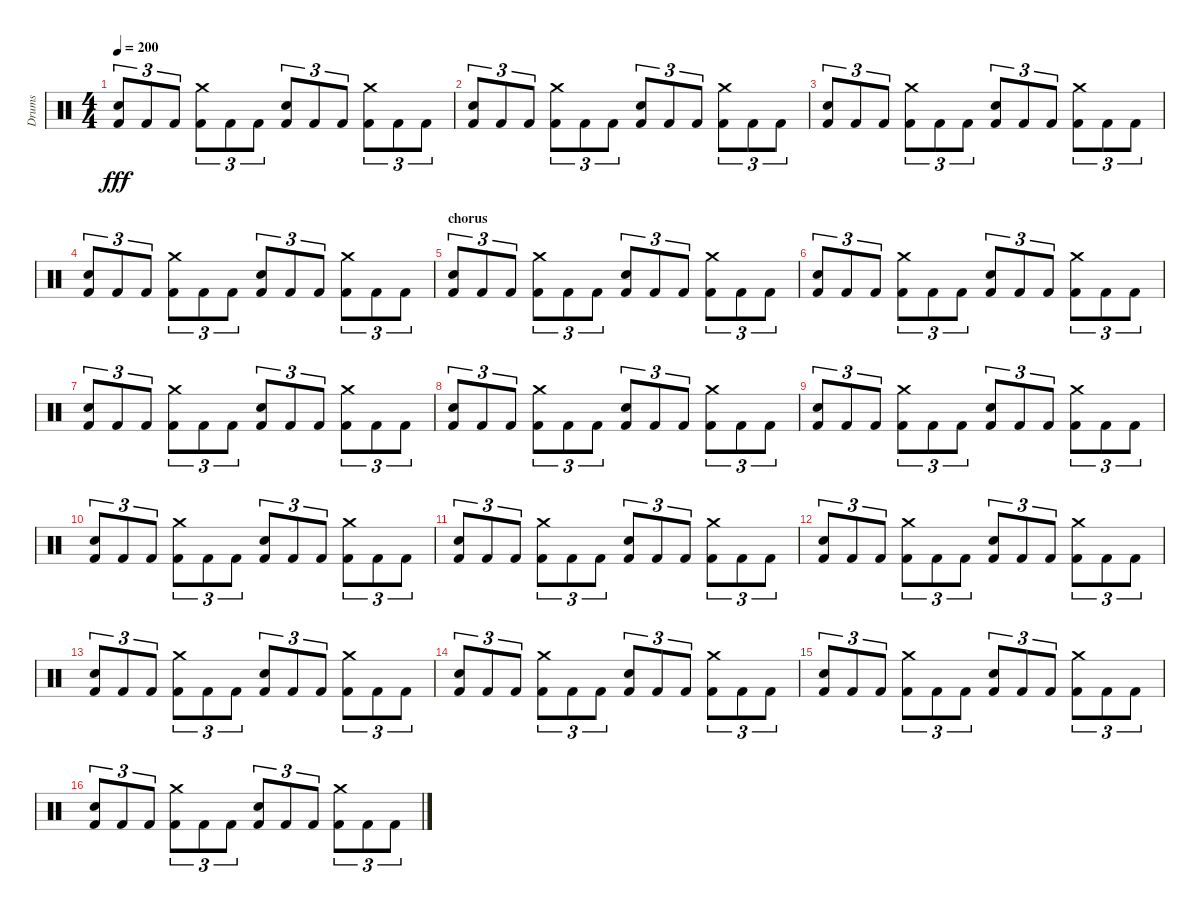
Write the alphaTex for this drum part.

\track ("Drums" "Drums") {instrument percussion}
\staff {score}
\articulation defaults
\ts (4 4)
\tempo 200
\clef neutral
\ks c
("Electric Snare (hit)" "Kick (hit) 2").8{tu (3 2) dy fff} "Kick (hit) 2".8{tu (3 2)} "Kick (hit) 2".8{tu (3 2)} ("Crash medium (hit)" "Kick (hit) 2").8{tu (3 2)} "Kick (hit) 2".8{tu (3 2)} "Kick (hit) 2".8{tu (3 2)} ("Electric Snare (hit)" "Kick (hit) 2").8{tu (3 2)} "Kick (hit) 2".8{tu (3 2)} "Kick (hit) 2".8{tu (3 2)} ("Crash medium (hit)" "Kick (hit) 2").8{tu (3 2)} "Kick (hit) 2".8{tu (3 2)} "Kick (hit) 2".8{tu (3 2)} |
("Electric Snare (hit)" "Kick (hit) 2").8{tu (3 2)} "Kick (hit) 2".8{tu (3 2)} "Kick (hit) 2".8{tu (3 2)} ("Crash medium (hit)" "Kick (hit) 2").8{tu (3 2)} "Kick (hit) 2".8{tu (3 2)} "Kick (hit) 2".8{tu (3 2)} ("Electric Snare (hit)" "Kick (hit) 2").8{tu (3 2)} "Kick (hit) 2".8{tu (3 2)} "Kick (hit) 2".8{tu (3 2)} ("Crash medium (hit)" "Kick (hit) 2").8{tu (3 2)} "Kick (hit) 2".8{tu (3 2)} "Kick (hit) 2".8{tu (3 2)} |
("Electric Snare (hit)" "Kick (hit) 2").8{tu (3 2)} "Kick (hit) 2".8{tu (3 2)} "Kick (hit) 2".8{tu (3 2)} ("Crash medium (hit)" "Kick (hit) 2").8{tu (3 2)} "Kick (hit) 2".8{tu (3 2)} "Kick (hit) 2".8{tu (3 2)} ("Electric Snare (hit)" "Kick (hit) 2").8{tu (3 2)} "Kick (hit) 2".8{tu (3 2)} "Kick (hit) 2".8{tu (3 2)} ("Crash medium (hit)" "Kick (hit) 2").8{tu (3 2)} "Kick (hit) 2".8{tu (3 2)} "Kick (hit) 2".8{tu (3 2)} |
("Electric Snare (hit)" "Kick (hit) 2").8{tu (3 2)} "Kick (hit) 2".8{tu (3 2)} "Kick (hit) 2".8{tu (3 2)} ("Crash medium (hit)" "Kick (hit) 2").8{tu (3 2)} "Kick (hit) 2".8{tu (3 2)} "Kick (hit) 2".8{tu (3 2)} ("Electric Snare (hit)" "Kick (hit) 2").8{tu (3 2)} "Kick (hit) 2".8{tu (3 2)} "Kick (hit) 2".8{tu (3 2)} ("Crash medium (hit)" "Kick (hit) 2").8{tu (3 2)} "Kick (hit) 2".8{tu (3 2)} "Kick (hit) 2".8{tu (3 2)} |
\section ("" "chorus")
("Electric Snare (hit)" "Kick (hit) 2").8{tu (3 2)} "Kick (hit) 2".8{tu (3 2)} "Kick (hit) 2".8{tu (3 2)} ("Crash medium (hit)" "Kick (hit) 2").8{tu (3 2)} "Kick (hit) 2".8{tu (3 2)} "Kick (hit) 2".8{tu (3 2)} ("Electric Snare (hit)" "Kick (hit) 2").8{tu (3 2)} "Kick (hit) 2".8{tu (3 2)} "Kick (hit) 2".8{tu (3 2)} ("Crash medium (hit)" "Kick (hit) 2").8{tu (3 2)} "Kick (hit) 2".8{tu (3 2)} "Kick (hit) 2".8{tu (3 2)} |
("Electric Snare (hit)" "Kick (hit) 2").8{tu (3 2)} "Kick (hit) 2".8{tu (3 2)} "Kick (hit) 2".8{tu (3 2)} ("Crash medium (hit)" "Kick (hit) 2").8{tu (3 2)} "Kick (hit) 2".8{tu (3 2)} "Kick (hit) 2".8{tu (3 2)} ("Electric Snare (hit)" "Kick (hit) 2").8{tu (3 2)} "Kick (hit) 2".8{tu (3 2)} "Kick (hit) 2".8{tu (3 2)} ("Crash medium (hit)" "Kick (hit) 2").8{tu (3 2)} "Kick (hit) 2".8{tu (3 2)} "Kick (hit) 2".8{tu (3 2)} |
("Electric Snare (hit)" "Kick (hit) 2").8{tu (3 2)} "Kick (hit) 2".8{tu (3 2)} "Kick (hit) 2".8{tu (3 2)} ("Crash medium (hit)" "Kick (hit) 2").8{tu (3 2)} "Kick (hit) 2".8{tu (3 2)} "Kick (hit) 2".8{tu (3 2)} ("Electric Snare (hit)" "Kick (hit) 2").8{tu (3 2)} "Kick (hit) 2".8{tu (3 2)} "Kick (hit) 2".8{tu (3 2)} ("Crash medium (hit)" "Kick (hit) 2").8{tu (3 2)} "Kick (hit) 2".8{tu (3 2)} "Kick (hit) 2".8{tu (3 2)} |
("Electric Snare (hit)" "Kick (hit) 2").8{tu (3 2)} "Kick (hit) 2".8{tu (3 2)} "Kick (hit) 2".8{tu (3 2)} ("Crash medium (hit)" "Kick (hit) 2").8{tu (3 2)} "Kick (hit) 2".8{tu (3 2)} "Kick (hit) 2".8{tu (3 2)} ("Electric Snare (hit)" "Kick (hit) 2").8{tu (3 2)} "Kick (hit) 2".8{tu (3 2)} "Kick (hit) 2".8{tu (3 2)} ("Crash medium (hit)" "Kick (hit) 2").8{tu (3 2)} "Kick (hit) 2".8{tu (3 2)} "Kick (hit) 2".8{tu (3 2)} |
("Electric Snare (hit)" "Kick (hit) 2").8{tu (3 2)} "Kick (hit) 2".8{tu (3 2)} "Kick (hit) 2".8{tu (3 2)} ("Crash medium (hit)" "Kick (hit) 2").8{tu (3 2)} "Kick (hit) 2".8{tu (3 2)} "Kick (hit) 2".8{tu (3 2)} ("Electric Snare (hit)" "Kick (hit) 2").8{tu (3 2)} "Kick (hit) 2".8{tu (3 2)} "Kick (hit) 2".8{tu (3 2)} ("Crash medium (hit)" "Kick (hit) 2").8{tu (3 2)} "Kick (hit) 2".8{tu (3 2)} "Kick (hit) 2".8{tu (3 2)} |
("Electric Snare (hit)" "Kick (hit) 2").8{tu (3 2)} "Kick (hit) 2".8{tu (3 2)} "Kick (hit) 2".8{tu (3 2)} ("Crash medium (hit)" "Kick (hit) 2").8{tu (3 2)} "Kick (hit) 2".8{tu (3 2)} "Kick (hit) 2".8{tu (3 2)} ("Electric Snare (hit)" "Kick (hit) 2").8{tu (3 2)} "Kick (hit) 2".8{tu (3 2)} "Kick (hit) 2".8{tu (3 2)} ("Crash medium (hit)" "Kick (hit) 2").8{tu (3 2)} "Kick (hit) 2".8{tu (3 2)} "Kick (hit) 2".8{tu (3 2)} |
("Electric Snare (hit)" "Kick (hit) 2").8{tu (3 2)} "Kick (hit) 2".8{tu (3 2)} "Kick (hit) 2".8{tu (3 2)} ("Crash medium (hit)" "Kick (hit) 2").8{tu (3 2)} "Kick (hit) 2".8{tu (3 2)} "Kick (hit) 2".8{tu (3 2)} ("Electric Snare (hit)" "Kick (hit) 2").8{tu (3 2)} "Kick (hit) 2".8{tu (3 2)} "Kick (hit) 2".8{tu (3 2)} ("Crash medium (hit)" "Kick (hit) 2").8{tu (3 2)} "Kick (hit) 2".8{tu (3 2)} "Kick (hit) 2".8{tu (3 2)} |
("Electric Snare (hit)" "Kick (hit) 2").8{tu (3 2)} "Kick (hit) 2".8{tu (3 2)} "Kick (hit) 2".8{tu (3 2)} ("Crash medium (hit)" "Kick (hit) 2").8{tu (3 2)} "Kick (hit) 2".8{tu (3 2)} "Kick (hit) 2".8{tu (3 2)} ("Electric Snare (hit)" "Kick (hit) 2").8{tu (3 2)} "Kick (hit) 2".8{tu (3 2)} "Kick (hit) 2".8{tu (3 2)} ("Crash medium (hit)" "Kick (hit) 2").8{tu (3 2)} "Kick (hit) 2".8{tu (3 2)} "Kick (hit) 2".8{tu (3 2)} |
("Electric Snare (hit)" "Kick (hit) 2").8{tu (3 2)} "Kick (hit) 2".8{tu (3 2)} "Kick (hit) 2".8{tu (3 2)} ("Crash medium (hit)" "Kick (hit) 2").8{tu (3 2)} "Kick (hit) 2".8{tu (3 2)} "Kick (hit) 2".8{tu (3 2)} ("Electric Snare (hit)" "Kick (hit) 2").8{tu (3 2)} "Kick (hit) 2".8{tu (3 2)} "Kick (hit) 2".8{tu (3 2)} ("Crash medium (hit)" "Kick (hit) 2").8{tu (3 2)} "Kick (hit) 2".8{tu (3 2)} "Kick (hit) 2".8{tu (3 2)} |
("Electric Snare (hit)" "Kick (hit) 2").8{tu (3 2)} "Kick (hit) 2".8{tu (3 2)} "Kick (hit) 2".8{tu (3 2)} ("Crash medium (hit)" "Kick (hit) 2").8{tu (3 2)} "Kick (hit) 2".8{tu (3 2)} "Kick (hit) 2".8{tu (3 2)} ("Electric Snare (hit)" "Kick (hit) 2").8{tu (3 2)} "Kick (hit) 2".8{tu (3 2)} "Kick (hit) 2".8{tu (3 2)} ("Crash medium (hit)" "Kick (hit) 2").8{tu (3 2)} "Kick (hit) 2".8{tu (3 2)} "Kick (hit) 2".8{tu (3 2)} |
("Electric Snare (hit)" "Kick (hit) 2").8{tu (3 2)} "Kick (hit) 2".8{tu (3 2)} "Kick (hit) 2".8{tu (3 2)} ("Crash medium (hit)" "Kick (hit) 2").8{tu (3 2)} "Kick (hit) 2".8{tu (3 2)} "Kick (hit) 2".8{tu (3 2)} ("Electric Snare (hit)" "Kick (hit) 2").8{tu (3 2)} "Kick (hit) 2".8{tu (3 2)} "Kick (hit) 2".8{tu (3 2)} ("Crash medium (hit)" "Kick (hit) 2").8{tu (3 2)} "Kick (hit) 2".8{tu (3 2)} "Kick (hit) 2".8{tu (3 2)} |
("Electric Snare (hit)" "Kick (hit) 2").8{tu (3 2)} "Kick (hit) 2".8{tu (3 2)} "Kick (hit) 2".8{tu (3 2)} ("Crash medium (hit)" "Kick (hit) 2").8{tu (3 2)} "Kick (hit) 2".8{tu (3 2)} "Kick (hit) 2".8{tu (3 2)} ("Electric Snare (hit)" "Kick (hit) 2").8{tu (3 2)} "Kick (hit) 2".8{tu (3 2)} "Kick (hit) 2".8{tu (3 2)} ("Crash medium (hit)" "Kick (hit) 2").8{tu (3 2)} "Kick (hit) 2".8{tu (3 2)} "Kick (hit) 2".8{tu (3 2)}
